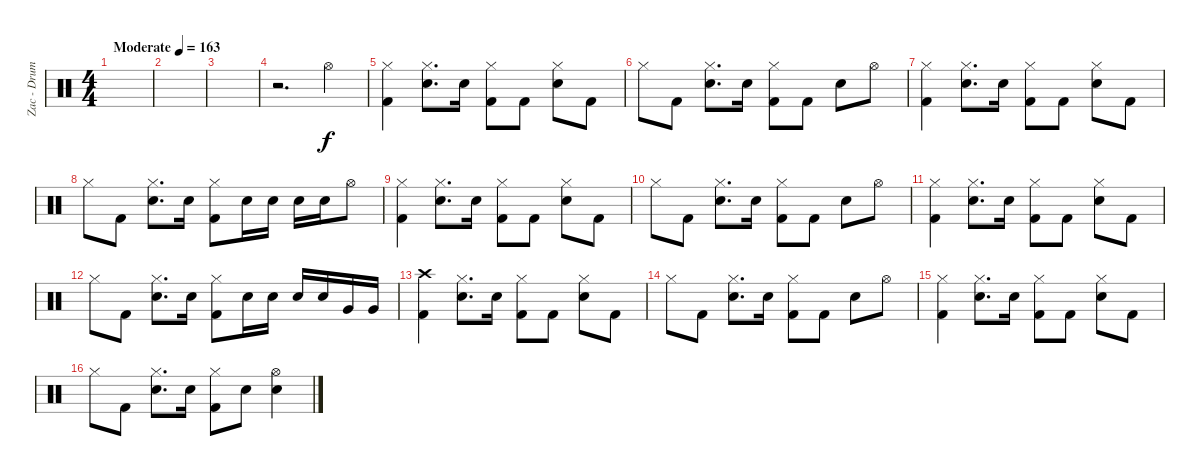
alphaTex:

\track ("Zac - Drums" "Zac - Drum") {instrument percussion}
\staff {score}
\articulation defaults
\ts (4 4)
\tempo (163 "Moderate")
\clef neutral
\ks c
|
|
|
r.2{d} "Hi-Hat (open)".4 |
("Hi-Hat (closed)" "Kick (hit) 2").4 ("Hi-Hat (closed)" "Snare (hit) 2").8{d} "Snare (hit) 2".16 ("Hi-Hat (closed)" "Kick (hit) 2").8 "Kick (hit) 2".8 ("Hi-Hat (closed)" "Snare (hit) 2").8 "Kick (hit) 2".8 |
"Hi-Hat (closed)".8 "Kick (hit) 2".8 ("Hi-Hat (closed)" "Snare (hit) 2").8{d} "Snare (hit) 2".16 ("Hi-Hat (closed)" "Kick (hit) 2").8 "Kick (hit) 2".8 "Snare (hit) 2".8 "Hi-Hat (open)".8 |
("Hi-Hat (closed)" "Kick (hit) 2").4 ("Hi-Hat (closed)" "Snare (hit) 2").8{d} "Snare (hit) 2".16 ("Hi-Hat (closed)" "Kick (hit) 2").8 "Kick (hit) 2".8 ("Hi-Hat (closed)" "Snare (hit) 2").8 "Kick (hit) 2".8 |
"Hi-Hat (closed)".8 "Kick (hit) 2".8 ("Hi-Hat (closed)" "Snare (hit) 2").8{d} "Snare (hit) 2".16 ("Hi-Hat (closed)" "Kick (hit) 2").8 "Snare (hit) 2".16 "Snare (hit) 2".16 "Snare (hit) 2".16 "Snare (hit) 2".16 "Hi-Hat (open)".8 |
("Hi-Hat (closed)" "Kick (hit) 2").4 ("Hi-Hat (closed)" "Snare (hit) 2").8{d} "Snare (hit) 2".16 ("Hi-Hat (closed)" "Kick (hit) 2").8 "Kick (hit) 2".8 ("Hi-Hat (closed)" "Snare (hit) 2").8 "Kick (hit) 2".8 |
"Hi-Hat (closed)".8 "Kick (hit) 2".8 ("Hi-Hat (closed)" "Snare (hit) 2").8{d} "Snare (hit) 2".16 ("Hi-Hat (closed)" "Kick (hit) 2").8 "Kick (hit) 2".8 "Snare (hit) 2".8 "Hi-Hat (open)".8 |
("Hi-Hat (closed)" "Kick (hit) 2").4 ("Hi-Hat (closed)" "Snare (hit) 2").8{d} "Snare (hit) 2".16 ("Hi-Hat (closed)" "Kick (hit) 2").8 "Kick (hit) 2".8 ("Hi-Hat (closed)" "Snare (hit) 2").8 "Kick (hit) 2".8 |
"Hi-Hat (closed)".8 "Kick (hit) 2".8 ("Hi-Hat (closed)" "Snare (hit) 2").8{d} "Snare (hit) 2".16 ("Hi-Hat (closed)" "Kick (hit) 2").8 "Snare (hit) 2".16 "Snare (hit) 2".16 "Snare (hit) 2".16 "Snare (hit) 2".16 "Very Low Tom (hit)".16 "Very Low Tom (hit)".16 |
("Crash high (hit)" "Kick (hit) 2").4 ("Hi-Hat (closed)" "Snare (hit) 2").8{d} "Snare (hit) 2".16 ("Hi-Hat (closed)" "Kick (hit) 2").8 "Kick (hit) 2".8 ("Hi-Hat (closed)" "Snare (hit) 2").8 "Kick (hit) 2".8 |
"Hi-Hat (closed)".8 "Kick (hit) 2".8 ("Hi-Hat (closed)" "Snare (hit) 2").8{d} "Snare (hit) 2".16 ("Hi-Hat (closed)" "Kick (hit) 2").8 "Kick (hit) 2".8 "Snare (hit) 2".8 "Hi-Hat (open)".8 |
("Hi-Hat (closed)" "Kick (hit) 2").4 ("Hi-Hat (closed)" "Snare (hit) 2").8{d} "Snare (hit) 2".16 ("Hi-Hat (closed)" "Kick (hit) 2").8 "Kick (hit) 2".8 ("Hi-Hat (closed)" "Snare (hit) 2").8 "Kick (hit) 2".8 |
"Hi-Hat (closed)".8 "Kick (hit) 2".8 ("Hi-Hat (closed)" "Snare (hit) 2").8{d} "Snare (hit) 2".16 ("Hi-Hat (closed)" "Kick (hit) 2").8 "Snare (hit) 2".8 ("Hi-Hat (open)" "Snare (hit) 2").4
